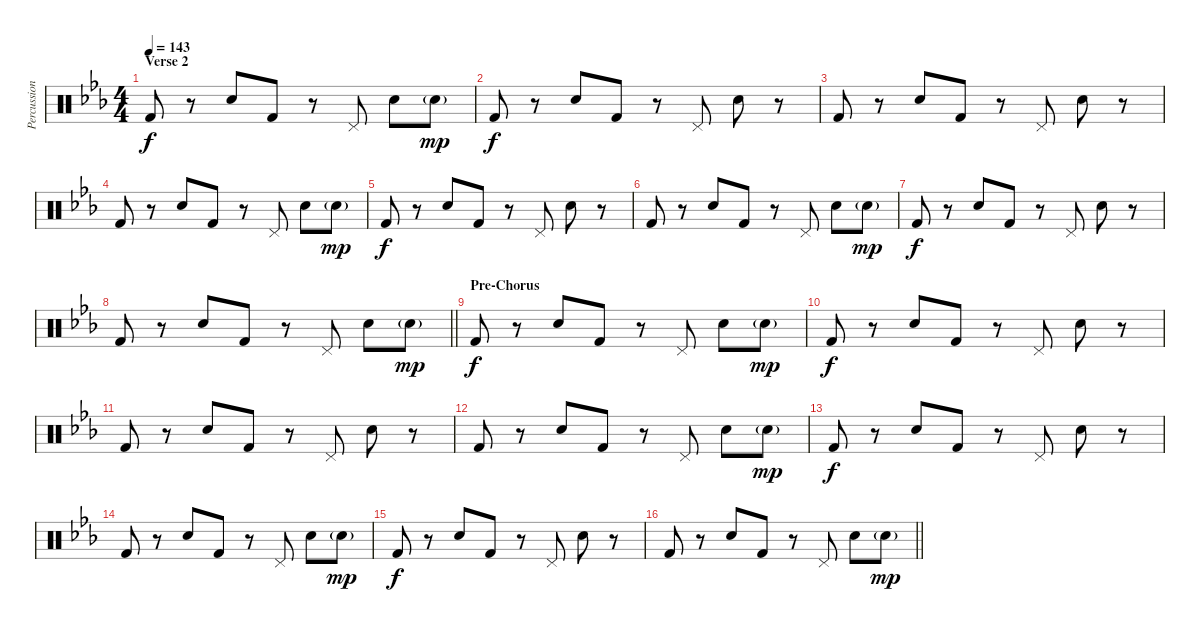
\track ("Percussion" "Percussion") {instrument percussion}
\staff {score}
\articulation defaults
\ts (4 4)
\section ("" "Verse 2")
\tempo 143
\clef neutral
\ks cminor "Kick (hit) 2".8{dy f}
r.8 "Electric Snare (hit)".8 "Kick (hit) 2".8 r.8 "Pedal Hi-Hat (hit)".8 "Electric Snare (hit)".8 "Electric Snare (hit)"{g}.8{dy mp} |
"Kick (hit) 2".8{dy f} r.8 "Electric Snare (hit)".8 "Kick (hit) 2".8 r.8 "Pedal Hi-Hat (hit)".8 "Electric Snare (hit)".8 r.8 |
"Kick (hit) 2".8 r.8 "Electric Snare (hit)".8 "Kick (hit) 2".8 r.8 "Pedal Hi-Hat (hit)".8 "Electric Snare (hit)".8 r.8 |
"Kick (hit) 2".8 r.8 "Electric Snare (hit)".8 "Kick (hit) 2".8 r.8 "Pedal Hi-Hat (hit)".8 "Electric Snare (hit)".8 "Electric Snare (hit)"{g}.8{dy mp} |
"Kick (hit) 2".8{dy f} r.8 "Electric Snare (hit)".8 "Kick (hit) 2".8 r.8 "Pedal Hi-Hat (hit)".8 "Electric Snare (hit)".8 r.8 |
"Kick (hit) 2".8 r.8 "Electric Snare (hit)".8 "Kick (hit) 2".8 r.8 "Pedal Hi-Hat (hit)".8 "Electric Snare (hit)".8 "Electric Snare (hit)"{g}.8{dy mp} |
"Kick (hit) 2".8{dy f} r.8 "Electric Snare (hit)".8 "Kick (hit) 2".8 r.8 "Pedal Hi-Hat (hit)".8 "Electric Snare (hit)".8 r.8 |
\barLineRight lightlight "Kick (hit) 2".8
r.8 "Electric Snare (hit)".8 "Kick (hit) 2".8 r.8 "Pedal Hi-Hat (hit)".8 "Electric Snare (hit)".8 "Electric Snare (hit)"{g}.8{dy mp} |
\section ("" "Pre-Chorus")
"Kick (hit) 2".8{dy f} r.8 "Electric Snare (hit)".8 "Kick (hit) 2".8 r.8 "Pedal Hi-Hat (hit)".8 "Electric Snare (hit)".8 "Electric Snare (hit)"{g}.8{dy mp} |
"Kick (hit) 2".8{dy f} r.8 "Electric Snare (hit)".8 "Kick (hit) 2".8 r.8 "Pedal Hi-Hat (hit)".8 "Electric Snare (hit)".8 r.8 |
"Kick (hit) 2".8 r.8 "Electric Snare (hit)".8 "Kick (hit) 2".8 r.8 "Pedal Hi-Hat (hit)".8 "Electric Snare (hit)".8 r.8 |
"Kick (hit) 2".8 r.8 "Electric Snare (hit)".8 "Kick (hit) 2".8 r.8 "Pedal Hi-Hat (hit)".8 "Electric Snare (hit)".8 "Electric Snare (hit)"{g}.8{dy mp} |
"Kick (hit) 2".8{dy f} r.8 "Electric Snare (hit)".8 "Kick (hit) 2".8 r.8 "Pedal Hi-Hat (hit)".8 "Electric Snare (hit)".8 r.8 |
"Kick (hit) 2".8 r.8 "Electric Snare (hit)".8 "Kick (hit) 2".8 r.8 "Pedal Hi-Hat (hit)".8 "Electric Snare (hit)".8 "Electric Snare (hit)"{g}.8{dy mp} |
"Kick (hit) 2".8{dy f} r.8 "Electric Snare (hit)".8 "Kick (hit) 2".8 r.8 "Pedal Hi-Hat (hit)".8 "Electric Snare (hit)".8 r.8 |
\barLineRight lightlight "Kick (hit) 2".8
r.8 "Electric Snare (hit)".8 "Kick (hit) 2".8 r.8 "Pedal Hi-Hat (hit)".8 "Electric Snare (hit)".8 "Electric Snare (hit)"{g}.8{dy mp}
